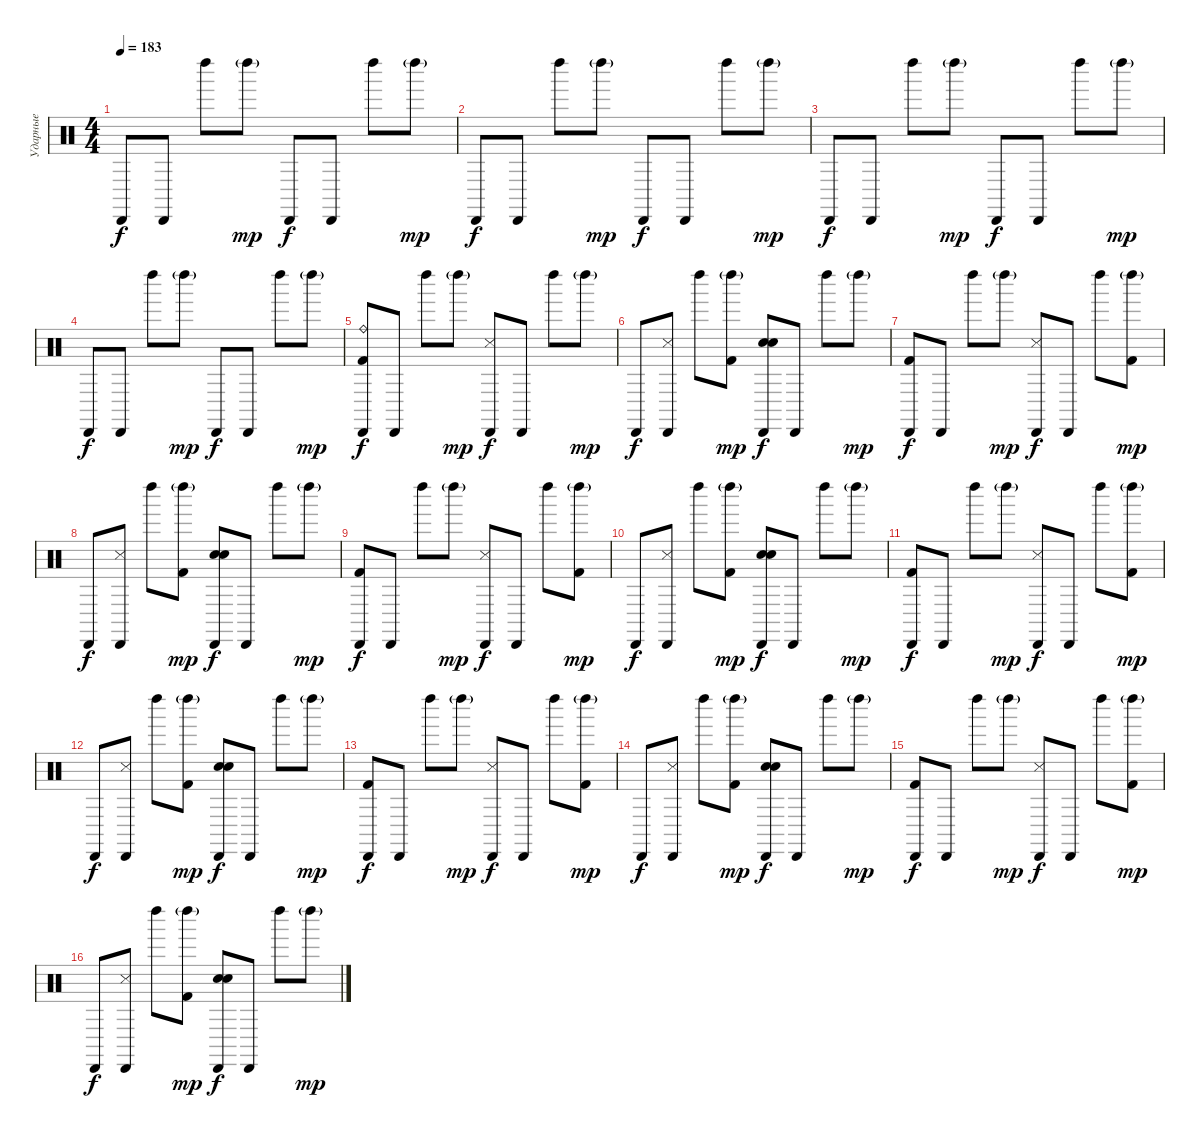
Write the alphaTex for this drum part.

\track ("Ударные" "Ударные") {instrument percussion}
\staff {score}
\articulation defaults
\ts (4 4)
\tempo 183
\clef neutral
\ks c "Cabasa (hit)".8{dy f} "Cabasa (hit)".8 "Left Maraca (hit)".8 "Left Maraca (hit)"{g}.8{dy mp} "Cabasa (hit)".8{dy f} "Cabasa (hit)".8 "Left Maraca (hit)".8 "Left Maraca (hit)"{g}.8{dy mp}
|
"Cabasa (hit)".8{dy f} "Cabasa (hit)".8 "Left Maraca (hit)".8 "Left Maraca (hit)"{g}.8{dy mp} "Cabasa (hit)".8{dy f} "Cabasa (hit)".8 "Left Maraca (hit)".8 "Left Maraca (hit)"{g}.8{dy mp} |
"Cabasa (hit)".8{dy f} "Cabasa (hit)".8 "Left Maraca (hit)".8 "Left Maraca (hit)"{g}.8{dy mp} "Cabasa (hit)".8{dy f} "Cabasa (hit)".8 "Left Maraca (hit)".8 "Left Maraca (hit)"{g}.8{dy mp} |
"Cabasa (hit)".8{dy f} "Cabasa (hit)".8 "Left Maraca (hit)".8 "Left Maraca (hit)"{g}.8{dy mp} "Cabasa (hit)".8{dy f} "Cabasa (hit)".8 "Left Maraca (hit)".8 "Left Maraca (hit)"{g}.8{dy mp} |
("Kick (hit) 2" "Cabasa (hit)" "Ride (bell)").8{dy f} "Cabasa (hit)".8 "Left Maraca (hit)".8 "Left Maraca (hit)"{g}.8{dy mp} ("Snare (side stick) 3" "Cabasa (hit)").8{dy f} "Cabasa (hit)".8 "Left Maraca (hit)".8 "Left Maraca (hit)"{g}.8{dy mp} |
"Cabasa (hit)".8{dy f} ("Snare (side stick) 3" "Cabasa (hit)").8 "Left Maraca (hit)".8 ("Kick (hit) 2" "Left Maraca (hit)"{g}).8{dy mp} ("Hand Clap (hit)" "Snare (hit) 2" "Cabasa (hit)").8{dy f} "Cabasa (hit)".8 "Left Maraca (hit)".8 "Left Maraca (hit)"{g}.8{dy mp} |
("Kick (hit) 2" "Cabasa (hit)").8{dy f} "Cabasa (hit)".8 "Left Maraca (hit)".8 "Left Maraca (hit)"{g}.8{dy mp} ("Snare (side stick) 3" "Cabasa (hit)").8{dy f} "Cabasa (hit)".8 "Left Maraca (hit)".8 ("Kick (hit) 2" "Left Maraca (hit)"{g}).8{dy mp} |
"Cabasa (hit)".8{dy f} ("Snare (side stick) 3" "Cabasa (hit)").8 "Left Maraca (hit)".8 ("Kick (hit) 2" "Left Maraca (hit)"{g}).8{dy mp} ("Hand Clap (hit)" "Snare (hit) 2" "Cabasa (hit)").8{dy f} "Cabasa (hit)".8 "Left Maraca (hit)".8 "Left Maraca (hit)"{g}.8{dy mp} |
("Kick (hit) 2" "Cabasa (hit)").8{dy f} "Cabasa (hit)".8 "Left Maraca (hit)".8 "Left Maraca (hit)"{g}.8{dy mp} ("Snare (side stick) 3" "Cabasa (hit)").8{dy f} "Cabasa (hit)".8 "Left Maraca (hit)".8 ("Kick (hit) 2" "Left Maraca (hit)"{g}).8{dy mp} |
"Cabasa (hit)".8{dy f} ("Snare (side stick) 3" "Cabasa (hit)").8 "Left Maraca (hit)".8 ("Kick (hit) 2" "Left Maraca (hit)"{g}).8{dy mp} ("Hand Clap (hit)" "Snare (hit) 2" "Cabasa (hit)").8{dy f} "Cabasa (hit)".8 "Left Maraca (hit)".8 "Left Maraca (hit)"{g}.8{dy mp} |
("Kick (hit) 2" "Cabasa (hit)").8{dy f} "Cabasa (hit)".8 "Left Maraca (hit)".8 "Left Maraca (hit)"{g}.8{dy mp} ("Snare (side stick) 3" "Cabasa (hit)").8{dy f} "Cabasa (hit)".8 "Left Maraca (hit)".8 ("Kick (hit) 2" "Left Maraca (hit)"{g}).8{dy mp} |
"Cabasa (hit)".8{dy f} ("Snare (side stick) 3" "Cabasa (hit)").8 "Left Maraca (hit)".8 ("Kick (hit) 2" "Left Maraca (hit)"{g}).8{dy mp} ("Hand Clap (hit)" "Snare (hit) 2" "Cabasa (hit)").8{dy f} "Cabasa (hit)".8 "Left Maraca (hit)".8 "Left Maraca (hit)"{g}.8{dy mp} |
("Kick (hit) 2" "Cabasa (hit)").8{dy f} "Cabasa (hit)".8 "Left Maraca (hit)".8 "Left Maraca (hit)"{g}.8{dy mp} ("Snare (side stick) 3" "Cabasa (hit)").8{dy f} "Cabasa (hit)".8 "Left Maraca (hit)".8 ("Kick (hit) 2" "Left Maraca (hit)"{g}).8{dy mp} |
"Cabasa (hit)".8{dy f} ("Snare (side stick) 3" "Cabasa (hit)").8 "Left Maraca (hit)".8 ("Kick (hit) 2" "Left Maraca (hit)"{g}).8{dy mp} ("Hand Clap (hit)" "Snare (hit) 2" "Cabasa (hit)").8{dy f} "Cabasa (hit)".8 "Left Maraca (hit)".8 "Left Maraca (hit)"{g}.8{dy mp} |
("Kick (hit) 2" "Cabasa (hit)").8{dy f} "Cabasa (hit)".8 "Left Maraca (hit)".8 "Left Maraca (hit)"{g}.8{dy mp} ("Snare (side stick) 3" "Cabasa (hit)").8{dy f} "Cabasa (hit)".8 "Left Maraca (hit)".8 ("Kick (hit) 2" "Left Maraca (hit)"{g}).8{dy mp} |
"Cabasa (hit)".8{dy f} ("Snare (side stick) 3" "Cabasa (hit)").8 "Left Maraca (hit)".8 ("Kick (hit) 2" "Left Maraca (hit)"{g}).8{dy mp} ("Hand Clap (hit)" "Snare (hit) 2" "Cabasa (hit)").8{dy f} "Cabasa (hit)".8 "Left Maraca (hit)".8 "Left Maraca (hit)"{g}.8{dy mp}
